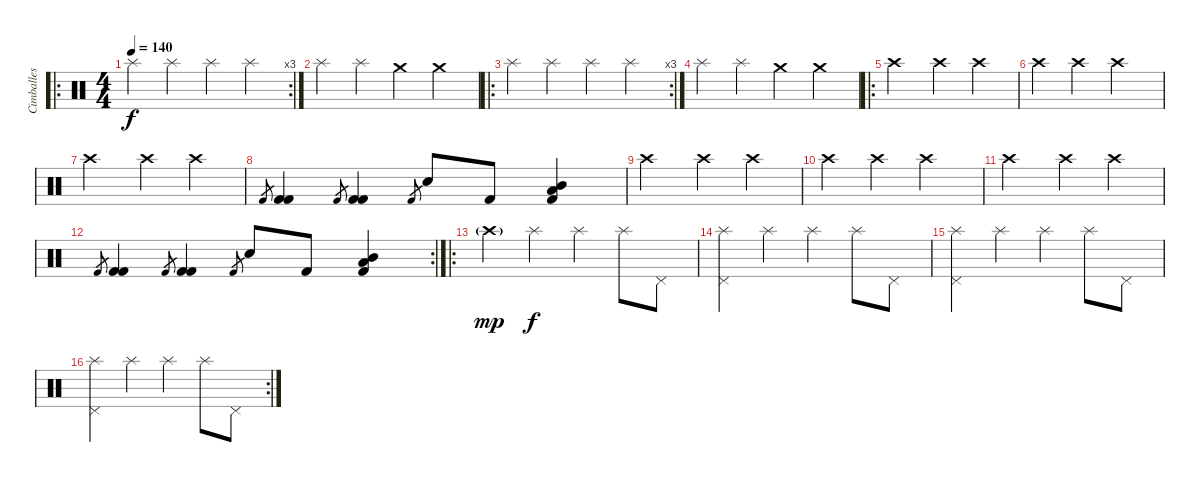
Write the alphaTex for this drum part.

\track ("Cimballes" "Cimballes") {instrument percussion}
\staff {score}
\articulation defaults
\ro
\rc 3
\ts (4 4)
\tempo 140
\clef neutral
\ks c "Splash (hit)".4{dy f} "Splash (hit)".4 "Splash (hit)".4 "Splash (hit)".4
|
"Splash (hit)".4 "Splash (hit)".4 "Crash medium (hit)".4 "Crash medium (hit)".4 |
\ro
\rc 3 "Splash (hit)".4 "Splash (hit)".4 "Splash (hit)".4 "Splash (hit)".4
|
"Splash (hit)".4 "Splash (hit)".4 "Crash medium (hit)".4 "Crash medium (hit)".4 |
\ro "Crash high (hit)".2 "Crash high (hit)".4 "Crash high (hit)".4
|
"Crash high (hit)".4 "Crash high (hit)".4 "Crash high (hit)".2 |
"Crash high (hit)".2 "Crash high (hit)".4 "Crash high (hit)".4 |
"Kick (hit) 2".8{gr} ("Kick (hit) 2" "Kick (hit) 2").4 "Kick (hit) 2".8{gr} ("Kick (hit) 2" "Kick (hit) 2").4 "Kick (hit) 2".8{gr} "Snare (hit) 2".8 "Kick (hit) 2".8 ("Mid Tom (hit)" "Low Tom (hit)" "Kick (hit) 2").4 |
"Crash high (hit)".2 "Crash high (hit)".4 "Crash high (hit)".4 |
"Crash high (hit)".4 "Crash high (hit)".4 "Crash high (hit)".2 |
"Crash high (hit)".2 "Crash high (hit)".4 "Crash high (hit)".4 |
\rc 2 "Kick (hit) 2".8{gr}
("Kick (hit) 2" "Kick (hit) 2").4 "Kick (hit) 2".8{gr} ("Kick (hit) 2" "Kick (hit) 2").4 "Kick (hit) 2".8{gr} "Snare (hit) 2".8 "Kick (hit) 2".8 ("Mid Tom (hit)" "Low Tom (hit)" "Kick (hit) 2").4 |
\ro "Crash high (hit)"{g}.4{dy mp} "Splash (hit)".4{dy f} "Splash (hit)".4 "Splash (hit)".8 "Pedal Hi-Hat (hit)".8
|
("Splash (hit)" "Pedal Hi-Hat (hit)").4 "Splash (hit)".4 "Splash (hit)".4 "Splash (hit)".8 "Pedal Hi-Hat (hit)".8 |
("Splash (hit)" "Pedal Hi-Hat (hit)").4 "Splash (hit)".4 "Splash (hit)".4 "Splash (hit)".8 "Pedal Hi-Hat (hit)".8 |
\rc 2
("Splash (hit)" "Pedal Hi-Hat (hit)").4 "Splash (hit)".4 "Splash (hit)".4 "Splash (hit)".8 "Pedal Hi-Hat (hit)".8
